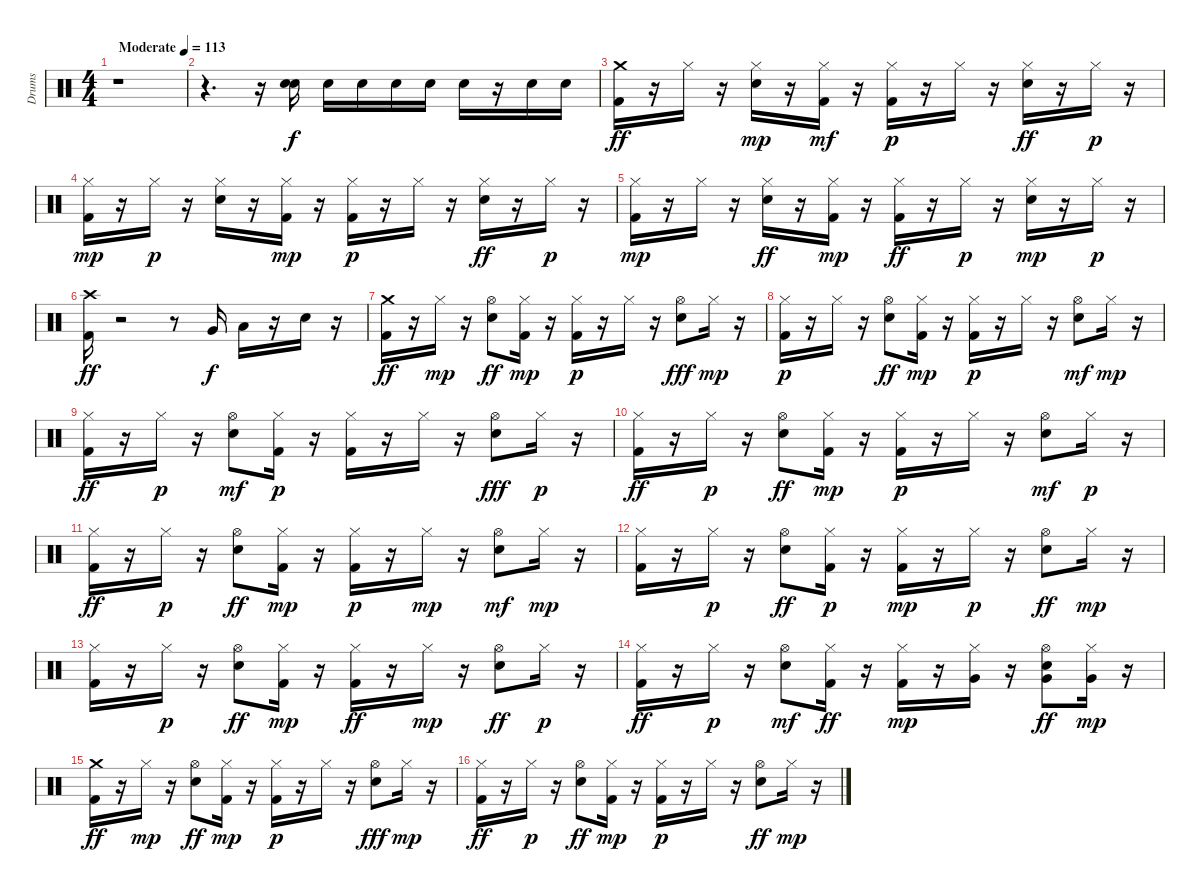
\track ("Drums" "Drums") {instrument percussion}
\staff {score}
\articulation defaults
\ts (4 4)
\tempo (113 "Moderate")
\clef neutral
\ks c
r.1{dy f} |
r.4{d} r.16 ("Snare (hit) 2" "Snare (hit) 2").16 "Snare (hit) 2".16 "Snare (hit) 2".16 "Snare (hit) 2".16 "Snare (hit) 2".16 "Electric Snare (hit)".16 r.16 "Snare (hit) 2".16 "Electric Snare (hit)".16 |
("Crash medium (hit)" "Kick (hit) 2").16{dy ff} r.16 "Hi-Hat (closed)".16 r.16 ("Electric Snare (hit)" "Hi-Hat (closed)").16{dy mp} r.16 ("Hi-Hat (closed)" "Kick (hit) 2").16{dy mf} r.16 ("Hi-Hat (closed)" "Kick (hit) 2").16{dy p} r.16 "Hi-Hat (closed)".16 r.16 ("Hi-Hat (closed)" "Electric Snare (hit)").16{dy ff} r.16 "Hi-Hat (closed)".16{dy p} r.16 |
("Hi-Hat (closed)" "Kick (hit) 2").16{dy mp} r.16 "Hi-Hat (closed)".16{dy p} r.16 ("Hi-Hat (closed)" "Electric Snare (hit)").16 r.16 ("Kick (hit) 2" "Hi-Hat (closed)").16{dy mp} r.16 ("Kick (hit) 2" "Hi-Hat (closed)").16{dy p} r.16 "Hi-Hat (closed)".16 r.16 ("Hi-Hat (closed)" "Electric Snare (hit)").16{dy ff} r.16 "Hi-Hat (closed)".16{dy p} r.16 |
("Kick (hit) 2" "Hi-Hat (closed)").16{dy mp} r.16 "Hi-Hat (closed)".16 r.16 ("Hi-Hat (closed)" "Electric Snare (hit)").16{dy ff} r.16 ("Hi-Hat (closed)" "Kick (hit) 2").16{dy mp} r.16 ("Hi-Hat (closed)" "Kick (hit) 2").16{dy ff} r.16 "Hi-Hat (closed)".16{dy p} r.16 ("Electric Snare (hit)" "Hi-Hat (closed)").16{dy mp} r.16 "Hi-Hat (closed)".16{dy p} r.16 |
("Crash high (hit)" "Kick (hit) 2").16{dy ff} r.2 r.8 "Very Low Tom (hit)".16{dy f} "Low Tom (hit)".16 r.16 "Snare (hit) 2".16 r.16 |
("Kick (hit) 2" "Crash medium (hit)").16{dy ff} r.16 "Hi-Hat (closed)".16{dy mp} r.16 ("Hi-Hat (open)" "Electric Snare (hit)").8{dy ff} ("Kick (hit) 2" "Hi-Hat (closed)").16{dy mp} r.16 ("Hi-Hat (closed)" "Kick (hit) 2").16{dy p} r.16 "Hi-Hat (closed)".16 r.16 ("Electric Snare (hit)" "Hi-Hat (open)").8{dy fff} "Hi-Hat (closed)".16{dy mp} r.16 |
("Kick (hit) 2" "Hi-Hat (closed)").16{dy p} r.16 "Hi-Hat (closed)".16 r.16 ("Electric Snare (hit)" "Hi-Hat (open)").8{dy ff} ("Kick (hit) 2" "Hi-Hat (closed)").16{dy mp} r.16 ("Hi-Hat (closed)" "Kick (hit) 2").16{dy p} r.16 "Hi-Hat (closed)".16 r.16 ("Electric Snare (hit)" "Hi-Hat (open)").8{dy mf} "Hi-Hat (closed)".16{dy mp} r.16 |
("Hi-Hat (closed)" "Kick (hit) 2").16{dy ff} r.16 "Hi-Hat (closed)".16{dy p} r.16 ("Electric Snare (hit)" "Hi-Hat (open)").8{dy mf} ("Hi-Hat (closed)" "Kick (hit) 2").16{dy p} r.16 ("Hi-Hat (closed)" "Kick (hit) 2").16 r.16 "Hi-Hat (closed)".16 r.16 ("Hi-Hat (open)" "Electric Snare (hit)").8{dy fff} "Hi-Hat (closed)".16{dy p} r.16 |
("Hi-Hat (closed)" "Kick (hit) 2").16{dy ff} r.16 "Hi-Hat (closed)".16{dy p} r.16 ("Hi-Hat (open)" "Electric Snare (hit)").8{dy ff} ("Kick (hit) 2" "Hi-Hat (closed)").16{dy mp} r.16 ("Hi-Hat (closed)" "Kick (hit) 2").16{dy p} r.16 "Hi-Hat (closed)".16 r.16 ("Electric Snare (hit)" "Hi-Hat (open)").8{dy mf} "Hi-Hat (closed)".16{dy p} r.16 |
("Hi-Hat (closed)" "Kick (hit) 2").16{dy ff} r.16 "Hi-Hat (closed)".16{dy p} r.16 ("Hi-Hat (open)" "Electric Snare (hit)").8{dy ff} ("Kick (hit) 2" "Hi-Hat (closed)").16{dy mp} r.16 ("Hi-Hat (closed)" "Kick (hit) 2").16{dy p} r.16 "Hi-Hat (closed)".16{dy mp} r.16 ("Electric Snare (hit)" "Hi-Hat (open)").8{dy mf} "Hi-Hat (closed)".16{dy mp} r.16 |
("Kick (hit) 2" "Hi-Hat (closed)").16 r.16 "Hi-Hat (closed)".16{dy p} r.16 ("Hi-Hat (open)" "Electric Snare (hit)").8{dy ff} ("Kick (hit) 2" "Hi-Hat (closed)").16{dy p} r.16 ("Hi-Hat (closed)" "Kick (hit) 2").16{dy mp} r.16 "Hi-Hat (closed)".16{dy p} r.16 ("Hi-Hat (open)" "Electric Snare (hit)").8{dy ff} "Hi-Hat (closed)".16{dy mp} r.16 |
("Kick (hit) 2" "Hi-Hat (closed)").16 r.16 "Hi-Hat (closed)".16{dy p} r.16 ("Hi-Hat (open)" "Electric Snare (hit)").8{dy ff} ("Kick (hit) 2" "Hi-Hat (closed)").16{dy mp} r.16 ("Hi-Hat (closed)" "Kick (hit) 2").16{dy ff} r.16 "Hi-Hat (closed)".16{dy mp} r.16 ("Hi-Hat (open)" "Electric Snare (hit)").8{dy ff} "Hi-Hat (closed)".16{dy p} r.16 |
("Hi-Hat (closed)" "Kick (hit) 2").16{dy ff} r.16 "Hi-Hat (closed)".16{dy p} r.16 ("Electric Snare (hit)" "Hi-Hat (open)").8{dy mf} ("Hi-Hat (closed)" "Kick (hit) 2").16{dy ff} r.16 ("Kick (hit) 2" "Hi-Hat (closed)").16{dy mp} r.16 ("Hi-Hat (closed)" "Very Low Tom (hit)").16 r.16 ("Very Low Tom (hit)" "Electric Snare (hit)" "Hi-Hat (open)").8{dy ff} ("Very Low Tom (hit)" "Hi-Hat (closed)").16{dy mp} r.16 |
("Crash medium (hit)" "Kick (hit) 2").16{dy ff} r.16 "Hi-Hat (closed)".16{dy mp} r.16 ("Hi-Hat (open)" "Electric Snare (hit)").8{dy ff} ("Hi-Hat (closed)" "Kick (hit) 2").16{dy mp} r.16 ("Hi-Hat (closed)" "Kick (hit) 2").16{dy p} r.16 "Hi-Hat (closed)".16 r.16 ("Electric Snare (hit)" "Hi-Hat (open)").8{dy fff} "Hi-Hat (closed)".16{dy mp} r.16 |
("Hi-Hat (closed)" "Kick (hit) 2").16{dy ff} r.16 "Hi-Hat (closed)".16{dy p} r.16 ("Electric Snare (hit)" "Hi-Hat (open)").8{dy ff} ("Kick (hit) 2" "Hi-Hat (closed)").16{dy mp} r.16 ("Hi-Hat (closed)" "Kick (hit) 2").16{dy p} r.16 "Hi-Hat (closed)".16 r.16 ("Hi-Hat (open)" "Electric Snare (hit)").8{dy ff} "Hi-Hat (closed)".16{dy mp} r.16
